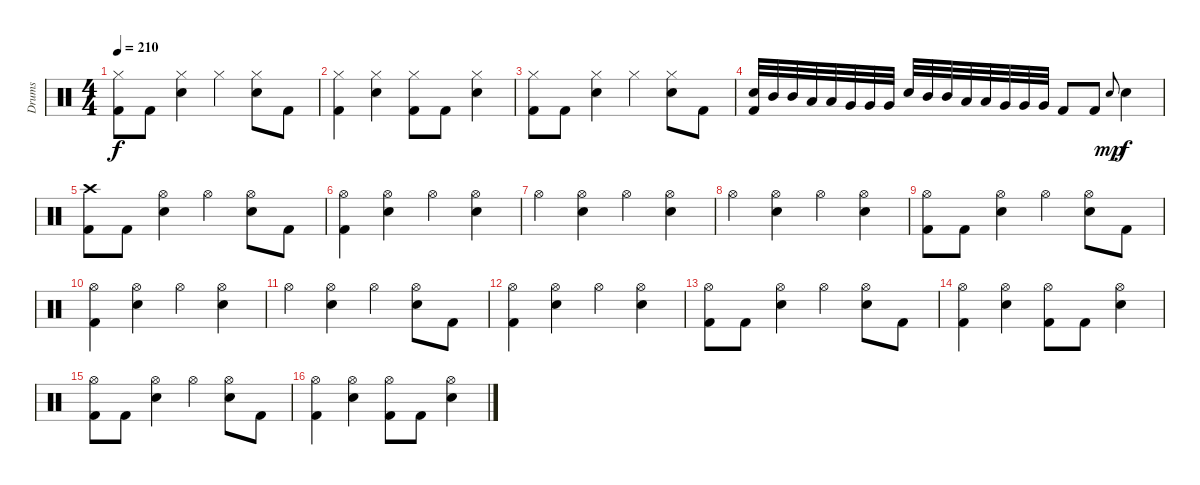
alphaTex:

\track ("Drums" "Drums") {instrument percussion}
\staff {score}
\articulation defaults
\ts (4 4)
\tempo 210
\clef neutral
\ks c
("Hi-Hat (closed)" "Kick (hit) 2").8{dy f} "Kick (hit) 2".8 ("Hi-Hat (closed)" "Snare (hit) 2").4 "Hi-Hat (closed)".4 ("Hi-Hat (closed)" "Snare (hit) 2").8 "Kick (hit) 2".8 |
("Hi-Hat (closed)" "Kick (hit) 2").4 ("Hi-Hat (closed)" "Snare (hit) 2").4 ("Hi-Hat (closed)" "Kick (hit) 2").8 "Kick (hit) 2".8 ("Hi-Hat (closed)" "Snare (hit) 2").4 |
("Hi-Hat (closed)" "Kick (hit) 2").8 "Kick (hit) 2".8 ("Hi-Hat (closed)" "Snare (hit) 2").4 "Hi-Hat (closed)".4 ("Hi-Hat (closed)" "Snare (hit) 2").8 "Kick (hit) 2".8 |
("Snare (hit) 2" "Kick (hit) 2").32 "Mid Tom (hit)".32 "Mid Tom (hit)".32 "Low Tom (hit)".32 "Low Tom (hit)".32 "Very Low Tom (hit)".32 "Very Low Tom (hit)".32 "Very Low Tom (hit)".32 "Snare (hit) 2".32 "Mid Tom (hit)".32 "Mid Tom (hit)".32 "Low Tom (hit)".32 "Low Tom (hit)".32 "Very Low Tom (hit)".32 "Very Low Tom (hit)".32 "Very Low Tom (hit)".32 "Kick (hit) 2".8 "Kick (hit) 2".8 "Snare (hit) 2".8{gr onbeat dy mp} "Snare (hit) 2".4{dy f} |
("Crash high (hit)" "Kick (hit) 2").8 "Kick (hit) 2".8 ("Hi-Hat (open)" "Snare (hit) 2").4 "Hi-Hat (open)".4 ("Hi-Hat (open)" "Snare (hit) 2").8 "Kick (hit) 2".8 |
("Hi-Hat (open)" "Kick (hit) 2").4 ("Hi-Hat (open)" "Snare (hit) 2").4 "Hi-Hat (open)".4 ("Hi-Hat (open)" "Snare (hit) 2").4 |
"Hi-Hat (open)".4 ("Hi-Hat (open)" "Snare (hit) 2").4 "Hi-Hat (open)".4 ("Hi-Hat (open)" "Snare (hit) 2").4 |
"Hi-Hat (open)".4 ("Hi-Hat (open)" "Snare (hit) 2").4 "Hi-Hat (open)".4 ("Hi-Hat (open)" "Snare (hit) 2").4 |
("Hi-Hat (open)" "Kick (hit) 2").8 "Kick (hit) 2".8 ("Hi-Hat (open)" "Snare (hit) 2").4 "Hi-Hat (open)".4 ("Hi-Hat (open)" "Snare (hit) 2").8 "Kick (hit) 2".8 |
("Hi-Hat (open)" "Kick (hit) 2").4 ("Hi-Hat (open)" "Snare (hit) 2").4 "Hi-Hat (open)".4 ("Hi-Hat (open)" "Snare (hit) 2").4 |
"Hi-Hat (open)".4 ("Hi-Hat (open)" "Snare (hit) 2").4 "Hi-Hat (open)".4 ("Hi-Hat (open)" "Snare (hit) 2").8 "Kick (hit) 2".8 |
("Hi-Hat (open)" "Kick (hit) 2").4 ("Hi-Hat (open)" "Snare (hit) 2").4 "Hi-Hat (open)".4 ("Hi-Hat (open)" "Snare (hit) 2").4 |
("Hi-Hat (open)" "Kick (hit) 2").8 "Kick (hit) 2".8 ("Hi-Hat (open)" "Snare (hit) 2").4 "Hi-Hat (open)".4 ("Hi-Hat (open)" "Snare (hit) 2").8 "Kick (hit) 2".8 |
("Hi-Hat (open)" "Kick (hit) 2").4 ("Hi-Hat (open)" "Snare (hit) 2").4 ("Hi-Hat (open)" "Kick (hit) 2").8 "Kick (hit) 2".8 ("Hi-Hat (open)" "Snare (hit) 2").4 |
("Hi-Hat (open)" "Kick (hit) 2").8 "Kick (hit) 2".8 ("Hi-Hat (open)" "Snare (hit) 2").4 "Hi-Hat (open)".4 ("Hi-Hat (open)" "Snare (hit) 2").8 "Kick (hit) 2".8 |
("Hi-Hat (open)" "Kick (hit) 2").4 ("Hi-Hat (open)" "Snare (hit) 2").4 ("Hi-Hat (open)" "Kick (hit) 2").8 "Kick (hit) 2".8 ("Hi-Hat (open)" "Snare (hit) 2").4
